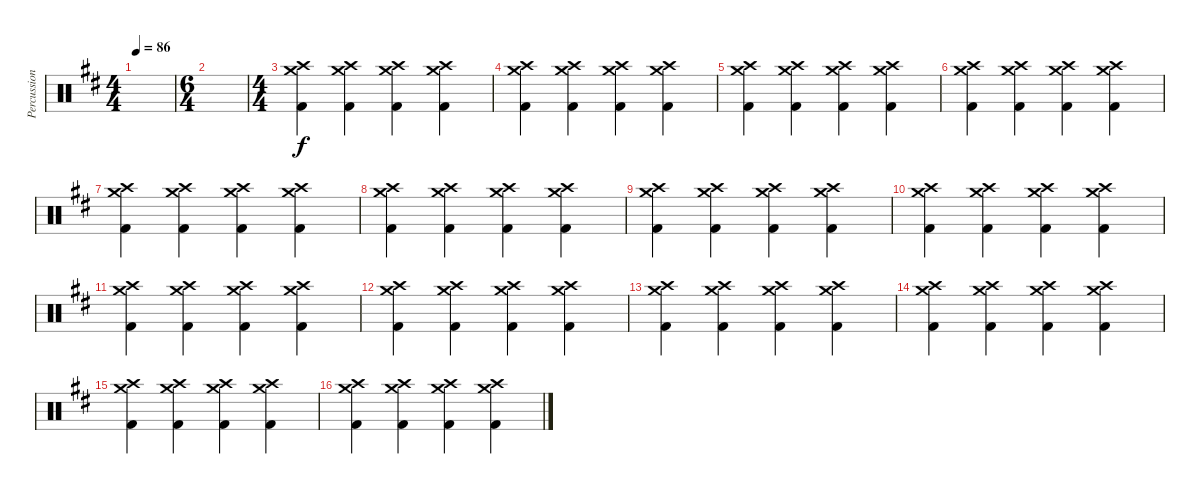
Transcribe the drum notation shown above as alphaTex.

\track ("Percussion" "Percussion") {instrument percussion}
\staff {score}
\articulation defaults
\ts (4 4)
\tempo 86
\clef neutral
\ks d
|
\ts (6 4)
|
\ts (4 4)
("Crash medium (hit)" "Crash high (hit)" "Kick (hit) 2").4 ("Crash medium (hit)" "Crash high (hit)" "Kick (hit) 2").4 ("Crash medium (hit)" "Crash high (hit)" "Kick (hit) 2").4 ("Crash medium (hit)" "Crash high (hit)" "Kick (hit) 2").4 |
("Crash medium (hit)" "Crash high (hit)" "Kick (hit) 2").4 ("Crash medium (hit)" "Crash high (hit)" "Kick (hit) 2").4 ("Crash medium (hit)" "Crash high (hit)" "Kick (hit) 2").4 ("Crash medium (hit)" "Crash high (hit)" "Kick (hit) 2").4 |
("Crash medium (hit)" "Crash high (hit)" "Kick (hit) 2").4 ("Crash medium (hit)" "Crash high (hit)" "Kick (hit) 2").4 ("Crash medium (hit)" "Crash high (hit)" "Kick (hit) 2").4 ("Crash medium (hit)" "Crash high (hit)" "Kick (hit) 2").4 |
("Crash medium (hit)" "Crash high (hit)" "Kick (hit) 2").4 ("Crash medium (hit)" "Crash high (hit)" "Kick (hit) 2").4 ("Crash medium (hit)" "Crash high (hit)" "Kick (hit) 2").4 ("Crash medium (hit)" "Crash high (hit)" "Kick (hit) 2").4 |
("Crash medium (hit)" "Crash high (hit)" "Kick (hit) 2").4 ("Crash medium (hit)" "Crash high (hit)" "Kick (hit) 2").4 ("Crash medium (hit)" "Crash high (hit)" "Kick (hit) 2").4 ("Crash medium (hit)" "Crash high (hit)" "Kick (hit) 2").4 |
("Crash medium (hit)" "Crash high (hit)" "Kick (hit) 2").4 ("Crash medium (hit)" "Crash high (hit)" "Kick (hit) 2").4 ("Crash medium (hit)" "Crash high (hit)" "Kick (hit) 2").4 ("Crash medium (hit)" "Crash high (hit)" "Kick (hit) 2").4 |
("Crash medium (hit)" "Crash high (hit)" "Kick (hit) 2").4 ("Crash medium (hit)" "Crash high (hit)" "Kick (hit) 2").4 ("Crash medium (hit)" "Crash high (hit)" "Kick (hit) 2").4 ("Crash medium (hit)" "Crash high (hit)" "Kick (hit) 2").4 |
("Crash medium (hit)" "Crash high (hit)" "Kick (hit) 2").4 ("Crash medium (hit)" "Crash high (hit)" "Kick (hit) 2").4 ("Crash medium (hit)" "Crash high (hit)" "Kick (hit) 2").4 ("Crash medium (hit)" "Crash high (hit)" "Kick (hit) 2").4 |
("Crash medium (hit)" "Crash high (hit)" "Kick (hit) 2").4 ("Crash medium (hit)" "Crash high (hit)" "Kick (hit) 2").4 ("Crash medium (hit)" "Crash high (hit)" "Kick (hit) 2").4 ("Crash medium (hit)" "Crash high (hit)" "Kick (hit) 2").4 |
("Crash medium (hit)" "Crash high (hit)" "Kick (hit) 2").4 ("Crash medium (hit)" "Crash high (hit)" "Kick (hit) 2").4 ("Crash medium (hit)" "Crash high (hit)" "Kick (hit) 2").4 ("Crash medium (hit)" "Crash high (hit)" "Kick (hit) 2").4 |
("Crash medium (hit)" "Crash high (hit)" "Kick (hit) 2").4 ("Crash medium (hit)" "Crash high (hit)" "Kick (hit) 2").4 ("Crash medium (hit)" "Crash high (hit)" "Kick (hit) 2").4 ("Crash medium (hit)" "Crash high (hit)" "Kick (hit) 2").4 |
("Crash medium (hit)" "Crash high (hit)" "Kick (hit) 2").4 ("Crash medium (hit)" "Crash high (hit)" "Kick (hit) 2").4 ("Crash medium (hit)" "Crash high (hit)" "Kick (hit) 2").4 ("Crash medium (hit)" "Crash high (hit)" "Kick (hit) 2").4 |
("Crash medium (hit)" "Crash high (hit)" "Kick (hit) 2").4 ("Crash medium (hit)" "Crash high (hit)" "Kick (hit) 2").4 ("Crash medium (hit)" "Crash high (hit)" "Kick (hit) 2").4 ("Crash medium (hit)" "Crash high (hit)" "Kick (hit) 2").4 |
("Crash medium (hit)" "Crash high (hit)" "Kick (hit) 2").4 ("Crash medium (hit)" "Crash high (hit)" "Kick (hit) 2").4 ("Crash medium (hit)" "Crash high (hit)" "Kick (hit) 2").4 ("Crash medium (hit)" "Crash high (hit)" "Kick (hit) 2").4
